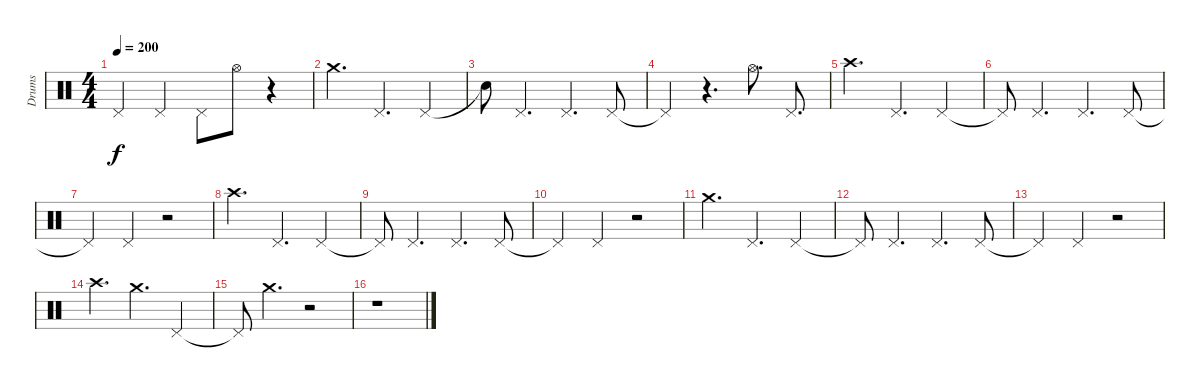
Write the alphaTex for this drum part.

\track ("Drums" "Drums") {instrument percussion}
\staff {score}
\articulation defaults
\ts (4 4)
\tempo 200
\clef neutral
\ks c "Pedal Hi-Hat (hit)"{t}.4{dy f} "Pedal Hi-Hat (hit)".4 "Pedal Hi-Hat (hit)".8 "Hi-Hat (open)".8
r.4 |
"Crash medium (hit)".4{d} "Pedal Hi-Hat (hit)".4{d} "Pedal Hi-Hat (hit)".4 |
"Snare (hit)"{t}.8 "Pedal Hi-Hat (hit)".4{d} "Pedal Hi-Hat (hit)".4{d} "Pedal Hi-Hat (hit)".8 |
"Pedal Hi-Hat (hit)"{t}.4 r.4{d} "Hi-Hat (open)".8{d} "Pedal Hi-Hat (hit)".8{d} |
"Crash high (hit)".4{d} "Pedal Hi-Hat (hit)".4{d} "Pedal Hi-Hat (hit)".4 |
"Pedal Hi-Hat (hit)"{t}.8 "Pedal Hi-Hat (hit)".4{d} "Pedal Hi-Hat (hit)".4{d} "Pedal Hi-Hat (hit)".8 |
"Pedal Hi-Hat (hit)"{t}.4 "Pedal Hi-Hat (hit)".4 r.2 |
"Crash high (hit)".4{d} "Pedal Hi-Hat (hit)".4{d} "Pedal Hi-Hat (hit)".4 |
"Pedal Hi-Hat (hit)"{t}.8 "Pedal Hi-Hat (hit)".4{d} "Pedal Hi-Hat (hit)".4{d} "Pedal Hi-Hat (hit)".8 |
"Pedal Hi-Hat (hit)"{t}.4 "Pedal Hi-Hat (hit)".4 r.2 |
"Crash medium (hit)".4{d} "Pedal Hi-Hat (hit)".4{d} "Pedal Hi-Hat (hit)".4 |
"Pedal Hi-Hat (hit)"{t}.8 "Pedal Hi-Hat (hit)".4{d} "Pedal Hi-Hat (hit)".4{d} "Pedal Hi-Hat (hit)".8 |
"Pedal Hi-Hat (hit)"{t}.4 "Pedal Hi-Hat (hit)".4 r.2 |
"Crash high (hit)".4{d} "Crash medium (hit)".4{d} "Pedal Hi-Hat (hit)".4 |
"Pedal Hi-Hat (hit)"{t}.8 "Crash medium (hit)".4{d} r.2 |
r.1
